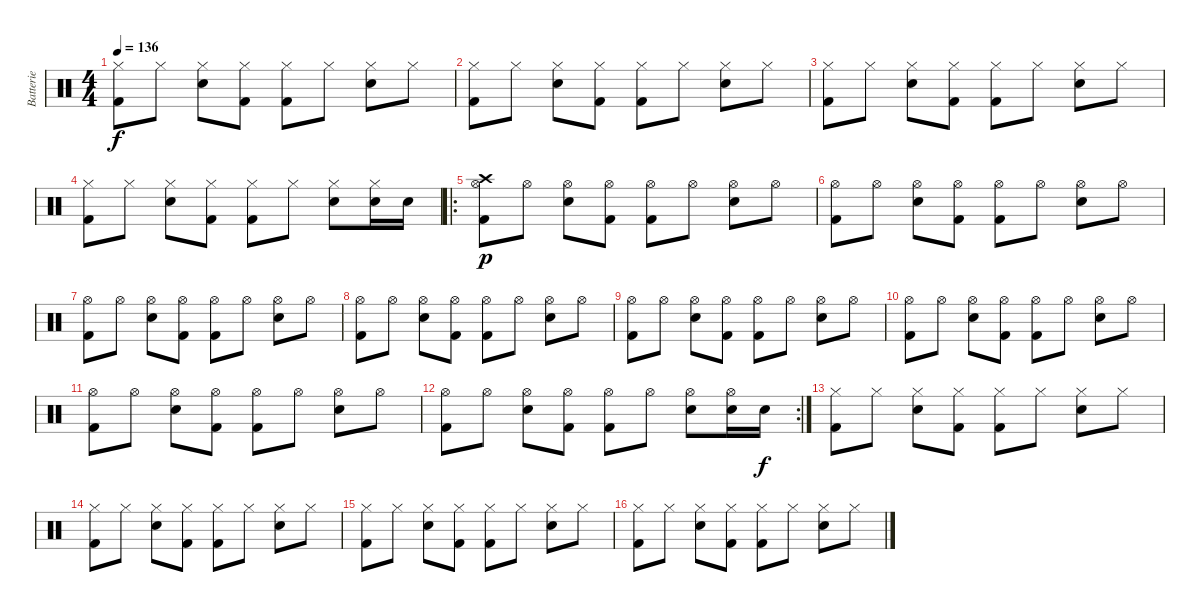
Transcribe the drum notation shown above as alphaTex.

\track ("Batterie" "Batterie") {instrument percussion}
\staff {score}
\articulation defaults
\ts (4 4)
\tempo 136
\clef neutral
\ks c
("Hi-Hat (closed)" "Kick (hit) 2").8{dy f} "Hi-Hat (closed)".8 ("Hi-Hat (closed)" "Electric Snare (hit)").8 ("Hi-Hat (closed)" "Kick (hit) 2").8 ("Hi-Hat (closed)" "Kick (hit) 2").8 "Hi-Hat (closed)".8 ("Hi-Hat (closed)" "Electric Snare (hit)").8 "Hi-Hat (closed)".8 |
("Hi-Hat (closed)" "Kick (hit) 2").8 "Hi-Hat (closed)".8 ("Hi-Hat (closed)" "Electric Snare (hit)").8 ("Hi-Hat (closed)" "Kick (hit) 2").8 ("Hi-Hat (closed)" "Kick (hit) 2").8 "Hi-Hat (closed)".8 ("Hi-Hat (closed)" "Electric Snare (hit)").8 "Hi-Hat (closed)".8 |
("Hi-Hat (closed)" "Kick (hit) 2").8 "Hi-Hat (closed)".8 ("Hi-Hat (closed)" "Electric Snare (hit)").8 ("Hi-Hat (closed)" "Kick (hit) 2").8 ("Hi-Hat (closed)" "Kick (hit) 2").8 "Hi-Hat (closed)".8 ("Hi-Hat (closed)" "Electric Snare (hit)").8 "Hi-Hat (closed)".8 |
("Hi-Hat (closed)" "Kick (hit) 2").8 "Hi-Hat (closed)".8 ("Hi-Hat (closed)" "Electric Snare (hit)").8 ("Hi-Hat (closed)" "Kick (hit) 2").8 ("Hi-Hat (closed)" "Kick (hit) 2").8 "Hi-Hat (closed)".8 ("Hi-Hat (closed)" "Electric Snare (hit)").8 ("Hi-Hat (closed)" "Electric Snare (hit)").16 "Electric Snare (hit)".16 |
\ro
("Crash high (hit)" "Hi-Hat (open)" "Kick (hit) 2").8{dy p} "Hi-Hat (open)".8 ("Hi-Hat (open)" "Electric Snare (hit)").8 ("Hi-Hat (open)" "Kick (hit) 2").8 ("Hi-Hat (open)" "Kick (hit) 2").8 "Hi-Hat (open)".8 ("Hi-Hat (open)" "Electric Snare (hit)").8 "Hi-Hat (open)".8 |
("Hi-Hat (open)" "Kick (hit) 2").8 "Hi-Hat (open)".8 ("Hi-Hat (open)" "Electric Snare (hit)").8 ("Hi-Hat (open)" "Kick (hit) 2").8 ("Hi-Hat (open)" "Kick (hit) 2").8 "Hi-Hat (open)".8 ("Hi-Hat (open)" "Electric Snare (hit)").8 "Hi-Hat (open)".8 |
("Hi-Hat (open)" "Kick (hit) 2").8 "Hi-Hat (open)".8 ("Hi-Hat (open)" "Electric Snare (hit)").8 ("Hi-Hat (open)" "Kick (hit) 2").8 ("Hi-Hat (open)" "Kick (hit) 2").8 "Hi-Hat (open)".8 ("Hi-Hat (open)" "Electric Snare (hit)").8 "Hi-Hat (open)".8 |
("Hi-Hat (open)" "Kick (hit) 2").8 "Hi-Hat (open)".8 ("Hi-Hat (open)" "Electric Snare (hit)").8 ("Hi-Hat (open)" "Kick (hit) 2").8 ("Hi-Hat (open)" "Kick (hit) 2").8 "Hi-Hat (open)".8 ("Hi-Hat (open)" "Electric Snare (hit)").8 "Hi-Hat (open)".8 |
("Hi-Hat (open)" "Kick (hit) 2").8 "Hi-Hat (open)".8 ("Hi-Hat (open)" "Electric Snare (hit)").8 ("Hi-Hat (open)" "Kick (hit) 2").8 ("Hi-Hat (open)" "Kick (hit) 2").8 "Hi-Hat (open)".8 ("Hi-Hat (open)" "Electric Snare (hit)").8 "Hi-Hat (open)".8 |
("Hi-Hat (open)" "Kick (hit) 2").8 "Hi-Hat (open)".8 ("Hi-Hat (open)" "Electric Snare (hit)").8 ("Hi-Hat (open)" "Kick (hit) 2").8 ("Hi-Hat (open)" "Kick (hit) 2").8 "Hi-Hat (open)".8 ("Hi-Hat (open)" "Electric Snare (hit)").8 "Hi-Hat (open)".8 |
("Hi-Hat (open)" "Kick (hit) 2").8 "Hi-Hat (open)".8 ("Hi-Hat (open)" "Electric Snare (hit)").8 ("Hi-Hat (open)" "Kick (hit) 2").8 ("Hi-Hat (open)" "Kick (hit) 2").8 "Hi-Hat (open)".8 ("Hi-Hat (open)" "Electric Snare (hit)").8 "Hi-Hat (open)".8 |
\rc 2
("Hi-Hat (open)" "Kick (hit) 2").8 "Hi-Hat (open)".8 ("Hi-Hat (open)" "Electric Snare (hit)").8 ("Hi-Hat (open)" "Kick (hit) 2").8 ("Hi-Hat (open)" "Kick (hit) 2").8 "Hi-Hat (open)".8 ("Hi-Hat (open)" "Electric Snare (hit)").8 ("Hi-Hat (open)" "Electric Snare (hit)").16 "Electric Snare (hit)".16{dy f} |
("Hi-Hat (closed)" "Kick (hit) 2").8 "Hi-Hat (closed)".8 ("Hi-Hat (closed)" "Electric Snare (hit)").8 ("Hi-Hat (closed)" "Kick (hit) 2").8 ("Hi-Hat (closed)" "Kick (hit) 2").8 "Hi-Hat (closed)".8 ("Hi-Hat (closed)" "Electric Snare (hit)").8 "Hi-Hat (closed)".8 |
("Hi-Hat (closed)" "Kick (hit) 2").8 "Hi-Hat (closed)".8 ("Hi-Hat (closed)" "Electric Snare (hit)").8 ("Hi-Hat (closed)" "Kick (hit) 2").8 ("Hi-Hat (closed)" "Kick (hit) 2").8 "Hi-Hat (closed)".8 ("Hi-Hat (closed)" "Electric Snare (hit)").8 "Hi-Hat (closed)".8 |
("Hi-Hat (closed)" "Kick (hit) 2").8 "Hi-Hat (closed)".8 ("Hi-Hat (closed)" "Electric Snare (hit)").8 ("Hi-Hat (closed)" "Kick (hit) 2").8 ("Hi-Hat (closed)" "Kick (hit) 2").8 "Hi-Hat (closed)".8 ("Hi-Hat (closed)" "Electric Snare (hit)").8 "Hi-Hat (closed)".8 |
("Hi-Hat (closed)" "Kick (hit) 2").8 "Hi-Hat (closed)".8 ("Hi-Hat (closed)" "Electric Snare (hit)").8 ("Hi-Hat (closed)" "Kick (hit) 2").8 ("Hi-Hat (closed)" "Kick (hit) 2").8 "Hi-Hat (closed)".8 ("Hi-Hat (closed)" "Electric Snare (hit)").8 "Hi-Hat (closed)".8
